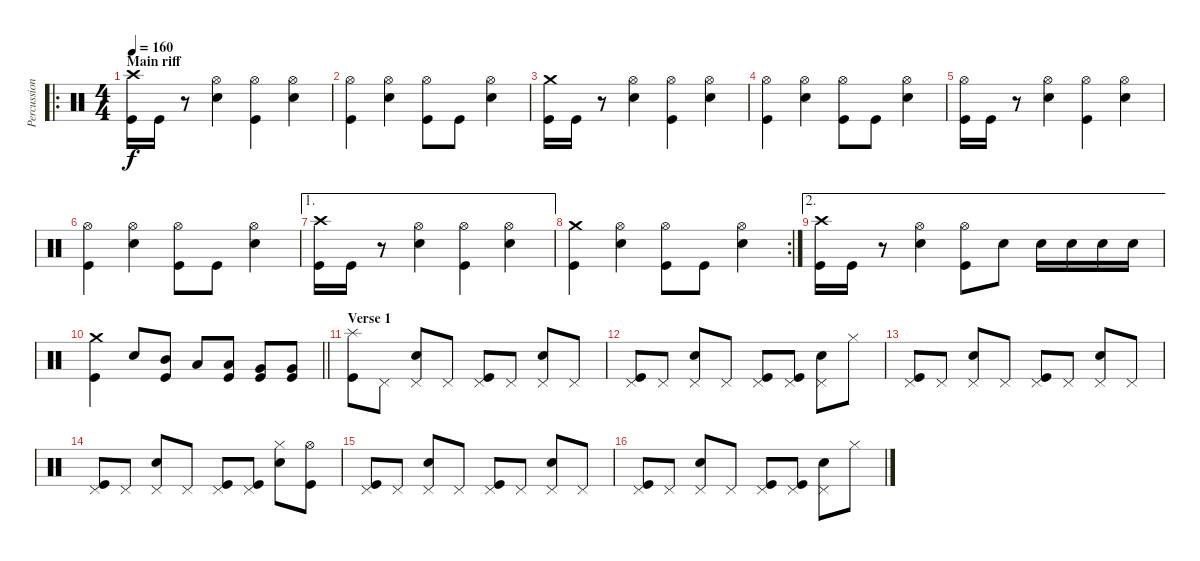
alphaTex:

\track ("Percussion" "Percussion") {instrument percussion}
\staff {score}
\articulation defaults
\ro
\ts (4 4)
\section ("" "Main riff")
\tempo 160
\clef neutral
\ks c
("Crash high (hit)" "Kick (hit)").16{dy f} "Kick (hit)".16 r.8 ("Hi-Hat (open)" "Snare (hit) 2").4 ("Hi-Hat (open)" "Kick (hit)").4 ("Hi-Hat (open)" "Snare (hit) 2").4 |
("Hi-Hat (open)" "Kick (hit)").4 ("Hi-Hat (open)" "Snare (hit) 2").4 ("Hi-Hat (open)" "Kick (hit)").8 "Kick (hit)".8 ("Hi-Hat (open)" "Snare (hit) 2").4 |
("Crash medium (hit)" "Kick (hit)").16 "Kick (hit)".16 r.8 ("Hi-Hat (open)" "Snare (hit) 2").4 ("Hi-Hat (open)" "Kick (hit)").4 ("Hi-Hat (open)" "Snare (hit) 2").4 |
("Hi-Hat (open)" "Kick (hit)").4 ("Hi-Hat (open)" "Snare (hit) 2").4 ("Hi-Hat (open)" "Kick (hit)").8 "Kick (hit)".8 ("Hi-Hat (open)" "Snare (hit) 2").4 |
("Hi-Hat (open)" "Kick (hit)").16 "Kick (hit)".16 r.8 ("Hi-Hat (open)" "Snare (hit) 2").4 ("Hi-Hat (open)" "Kick (hit)").4 ("Hi-Hat (open)" "Snare (hit) 2").4 |
("Hi-Hat (open)" "Kick (hit)").4 ("Hi-Hat (open)" "Snare (hit) 2").4 ("Hi-Hat (open)" "Kick (hit)").8 "Kick (hit)".8 ("Hi-Hat (open)" "Snare (hit) 2").4 |
\ae 1
("Crash high (hit)" "Kick (hit)").16 "Kick (hit)".16 r.8 ("Hi-Hat (open)" "Snare (hit) 2").4 ("Hi-Hat (open)" "Kick (hit)").4 ("Hi-Hat (open)" "Snare (hit) 2").4 |
\rc 2
("Crash medium (hit)" "Kick (hit)").4 ("Hi-Hat (open)" "Snare (hit) 2").4 ("Hi-Hat (open)" "Kick (hit)").8 "Kick (hit)".8 ("Hi-Hat (open)" "Snare (hit) 2").4 |
\ae 2
("Crash high (hit)" "Kick (hit)").16 "Kick (hit)".16 r.8 ("Hi-Hat (open)" "Snare (hit) 2").4 ("Hi-Hat (open)" "Kick (hit)").8 "Snare (hit) 2".8 "Snare (hit) 2".16 "Snare (hit) 2".16 "Snare (hit) 2".16 "Snare (hit) 2".16 |
\barLineRight lightlight
("Crash medium (hit)" "Kick (hit)").4 "Snare (hit) 2".8 ("Mid Tom (hit)" "Kick (hit)").8 "Low Tom (hit)".8 ("Low Tom (hit)" "Kick (hit)").8 ("Very Low Tom (hit)" "Kick (hit)").8 ("Very Low Tom (hit)" "Kick (hit)").8 |
\section ("" "Verse 1")
("Splash (hit)" "Kick (hit)").8 "Pedal Hi-Hat (hit)".8 ("Pedal Hi-Hat (hit)" "Snare (hit) 2").8 "Pedal Hi-Hat (hit)".8 ("Pedal Hi-Hat (hit)" "Kick (hit)").8 "Pedal Hi-Hat (hit)".8 ("Pedal Hi-Hat (hit)" "Snare (hit) 2").8 "Pedal Hi-Hat (hit)".8 |
("Pedal Hi-Hat (hit)" "Kick (hit)").8 "Pedal Hi-Hat (hit)".8 ("Pedal Hi-Hat (hit)" "Snare (hit) 2").8 "Pedal Hi-Hat (hit)".8 ("Pedal Hi-Hat (hit)" "Kick (hit)").8 ("Pedal Hi-Hat (hit)" "Kick (hit)").8 ("Pedal Hi-Hat (hit)" "Snare (hit) 2").8 "Hi-Hat (closed)".8 |
("Pedal Hi-Hat (hit)" "Kick (hit)").8 "Pedal Hi-Hat (hit)".8 ("Pedal Hi-Hat (hit)" "Snare (hit) 2").8 "Pedal Hi-Hat (hit)".8 ("Pedal Hi-Hat (hit)" "Kick (hit)").8 "Pedal Hi-Hat (hit)".8 ("Pedal Hi-Hat (hit)" "Snare (hit) 2").8 "Pedal Hi-Hat (hit)".8 |
("Pedal Hi-Hat (hit)" "Kick (hit)").8 "Pedal Hi-Hat (hit)".8 ("Pedal Hi-Hat (hit)" "Snare (hit) 2").8 "Pedal Hi-Hat (hit)".8 ("Pedal Hi-Hat (hit)" "Kick (hit)").8 ("Pedal Hi-Hat (hit)" "Kick (hit)").8 ("Hi-Hat (closed)" "Snare (hit) 2").8 ("Hi-Hat (open)" "Kick (hit)").8 |
("Pedal Hi-Hat (hit)" "Kick (hit)").8 "Pedal Hi-Hat (hit)".8 ("Pedal Hi-Hat (hit)" "Snare (hit) 2").8 "Pedal Hi-Hat (hit)".8 ("Pedal Hi-Hat (hit)" "Kick (hit)").8 "Pedal Hi-Hat (hit)".8 ("Pedal Hi-Hat (hit)" "Snare (hit) 2").8 "Pedal Hi-Hat (hit)".8 |
("Pedal Hi-Hat (hit)" "Kick (hit)").8 "Pedal Hi-Hat (hit)".8 ("Pedal Hi-Hat (hit)" "Snare (hit) 2").8 "Pedal Hi-Hat (hit)".8 ("Pedal Hi-Hat (hit)" "Kick (hit)").8 ("Pedal Hi-Hat (hit)" "Kick (hit)").8 ("Pedal Hi-Hat (hit)" "Snare (hit) 2").8 "Hi-Hat (closed)".8
